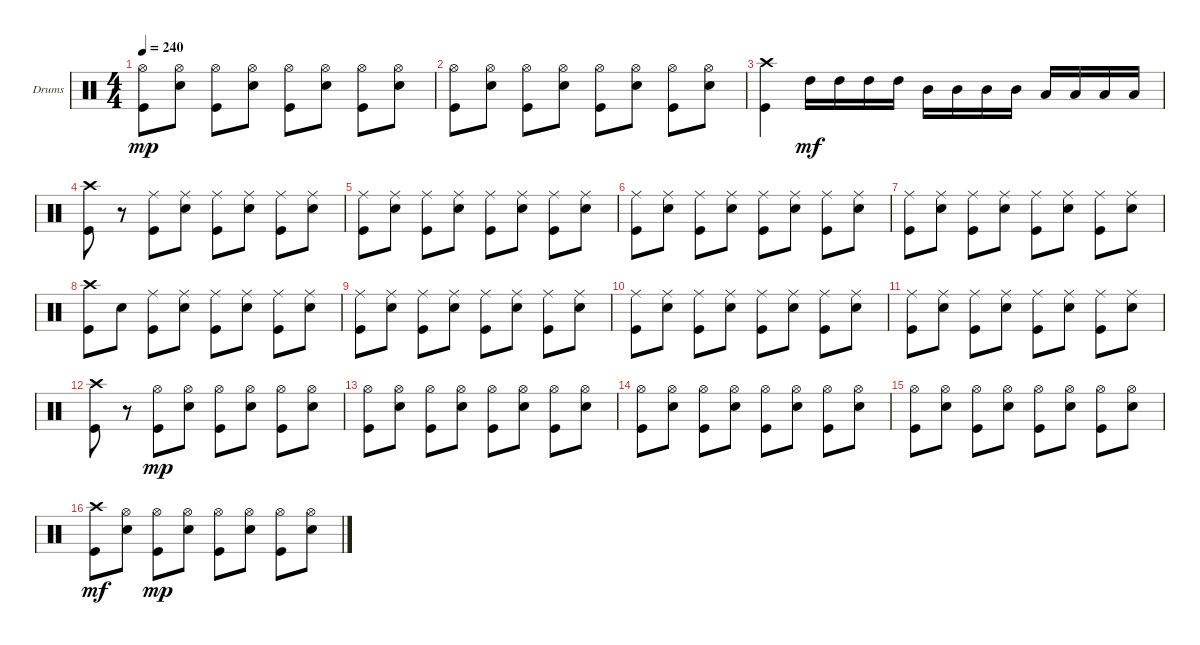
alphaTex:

\bracketExtendMode groupsimilarinstruments
\firstSystemTrackNameOrientation horizontal
\otherSystemsTrackNameOrientation horizontal
\track ("Drumkit" "Drums") {instrument percussion}
\staff {score}
\articulation defaults
\ts (4 4)
\tempo 240
\clef neutral
\ks c
("Hi-Hat (open)" "Kick (hit)").8{dy mp} ("Hi-Hat (open)" "Snare (hit) 2").8 ("Hi-Hat (open)" "Kick (hit)").8 ("Hi-Hat (open)" "Snare (hit) 2").8 ("Hi-Hat (open)" "Kick (hit)").8 ("Hi-Hat (open)" "Snare (hit) 2").8 ("Hi-Hat (open)" "Kick (hit)").8 ("Hi-Hat (open)" "Snare (hit) 2").8 |
("Hi-Hat (open)" "Kick (hit)").8 ("Hi-Hat (open)" "Snare (hit) 2").8 ("Hi-Hat (open)" "Kick (hit)").8 ("Hi-Hat (open)" "Snare (hit) 2").8 ("Hi-Hat (open)" "Kick (hit)").8 ("Hi-Hat (open)" "Snare (hit) 2").8 ("Hi-Hat (open)" "Kick (hit)").8 ("Hi-Hat (open)" "Snare (hit) 2").8 |
("Crash high (hit)" "Kick (hit)").4 "High Tom (hit)".16{dy mf} "High Tom (hit)".16 "High Tom (hit)".16 "High Tom (hit)".16 "Mid Tom (hit)".16 "Mid Tom (hit)".16 "Mid Tom (hit)".16 "Mid Tom (hit)".16 "Low Tom (hit)".16 "Low Tom (hit)".16 "Low Tom (hit)".16 "Low Tom (hit)".16 |
("Crash high (hit)" "Kick (hit)").8 r.8 ("Ride (middle)" "Kick (hit)").8 ("Ride (middle)" "Snare (hit) 2").8 ("Ride (middle)" "Kick (hit)").8 ("Ride (middle)" "Snare (hit) 2").8 ("Ride (middle)" "Kick (hit)").8 ("Ride (middle)" "Snare (hit) 2").8 |
("Ride (middle)" "Kick (hit)").8 ("Ride (middle)" "Snare (hit) 2").8 ("Ride (middle)" "Kick (hit)").8 ("Ride (middle)" "Snare (hit) 2").8 ("Ride (middle)" "Kick (hit)").8 ("Ride (middle)" "Snare (hit) 2").8 ("Ride (middle)" "Kick (hit)").8 ("Ride (middle)" "Snare (hit) 2").8 |
("Ride (middle)" "Kick (hit)").8 ("Ride (middle)" "Snare (hit) 2").8 ("Ride (middle)" "Kick (hit)").8 ("Ride (middle)" "Snare (hit) 2").8 ("Ride (middle)" "Kick (hit)").8 ("Ride (middle)" "Snare (hit) 2").8 ("Ride (middle)" "Kick (hit)").8 ("Ride (middle)" "Snare (hit) 2").8 |
("Ride (middle)" "Kick (hit)").8 ("Ride (middle)" "Snare (hit) 2").8 ("Ride (middle)" "Kick (hit)").8 ("Ride (middle)" "Snare (hit) 2").8 ("Ride (middle)" "Kick (hit)").8 ("Ride (middle)" "Snare (hit) 2").8 ("Ride (middle)" "Kick (hit)").8 ("Ride (middle)" "Snare (hit) 2").8 |
("Crash high (hit)" "Kick (hit)").8 "Snare (hit) 2".8 ("Ride (middle)" "Kick (hit)").8 ("Ride (middle)" "Snare (hit) 2").8 ("Ride (middle)" "Kick (hit)").8 ("Ride (middle)" "Snare (hit) 2").8 ("Ride (middle)" "Kick (hit)").8 ("Ride (middle)" "Snare (hit) 2").8 |
("Ride (middle)" "Kick (hit)").8 ("Ride (middle)" "Snare (hit) 2").8 ("Ride (middle)" "Kick (hit)").8 ("Ride (middle)" "Snare (hit) 2").8 ("Ride (middle)" "Kick (hit)").8 ("Ride (middle)" "Snare (hit) 2").8 ("Ride (middle)" "Kick (hit)").8 ("Ride (middle)" "Snare (hit) 2").8 |
("Ride (middle)" "Kick (hit)").8 ("Ride (middle)" "Snare (hit) 2").8 ("Ride (middle)" "Kick (hit)").8 ("Ride (middle)" "Snare (hit) 2").8 ("Ride (middle)" "Kick (hit)").8 ("Ride (middle)" "Snare (hit) 2").8 ("Ride (middle)" "Kick (hit)").8 ("Ride (middle)" "Snare (hit) 2").8 |
("Ride (middle)" "Kick (hit)").8 ("Ride (middle)" "Snare (hit) 2").8 ("Ride (middle)" "Kick (hit)").8 ("Ride (middle)" "Snare (hit) 2").8 ("Ride (middle)" "Kick (hit)").8 ("Ride (middle)" "Snare (hit) 2").8 ("Ride (middle)" "Kick (hit)").8 ("Ride (middle)" "Snare (hit) 2").8 |
("Crash high (hit)" "Kick (hit)").8 r.8 ("Hi-Hat (open)" "Kick (hit)").8{dy mp} ("Hi-Hat (open)" "Snare (hit) 2").8 ("Hi-Hat (open)" "Kick (hit)").8 ("Hi-Hat (open)" "Snare (hit) 2").8 ("Hi-Hat (open)" "Kick (hit)").8 ("Hi-Hat (open)" "Snare (hit) 2").8 |
("Hi-Hat (open)" "Kick (hit)").8 ("Hi-Hat (open)" "Snare (hit) 2").8 ("Hi-Hat (open)" "Kick (hit)").8 ("Hi-Hat (open)" "Snare (hit) 2").8 ("Hi-Hat (open)" "Kick (hit)").8 ("Hi-Hat (open)" "Snare (hit) 2").8 ("Hi-Hat (open)" "Kick (hit)").8 ("Hi-Hat (open)" "Snare (hit) 2").8 |
("Hi-Hat (open)" "Kick (hit)").8 ("Hi-Hat (open)" "Snare (hit) 2").8 ("Hi-Hat (open)" "Kick (hit)").8 ("Hi-Hat (open)" "Snare (hit) 2").8 ("Hi-Hat (open)" "Kick (hit)").8 ("Hi-Hat (open)" "Snare (hit) 2").8 ("Hi-Hat (open)" "Kick (hit)").8 ("Hi-Hat (open)" "Snare (hit) 2").8 |
("Hi-Hat (open)" "Kick (hit)").8 ("Hi-Hat (open)" "Snare (hit) 2").8 ("Hi-Hat (open)" "Kick (hit)").8 ("Hi-Hat (open)" "Snare (hit) 2").8 ("Hi-Hat (open)" "Kick (hit)").8 ("Hi-Hat (open)" "Snare (hit) 2").8 ("Hi-Hat (open)" "Kick (hit)").8 ("Hi-Hat (open)" "Snare (hit) 2").8 |
("Crash high (hit)" "Kick (hit)").8{dy mf} ("Hi-Hat (open)" "Snare (hit) 2").8 ("Hi-Hat (open)" "Kick (hit)").8{dy mp} ("Hi-Hat (open)" "Snare (hit) 2").8 ("Hi-Hat (open)" "Kick (hit)").8 ("Hi-Hat (open)" "Snare (hit) 2").8 ("Hi-Hat (open)" "Kick (hit)").8 ("Hi-Hat (open)" "Snare (hit) 2").8
